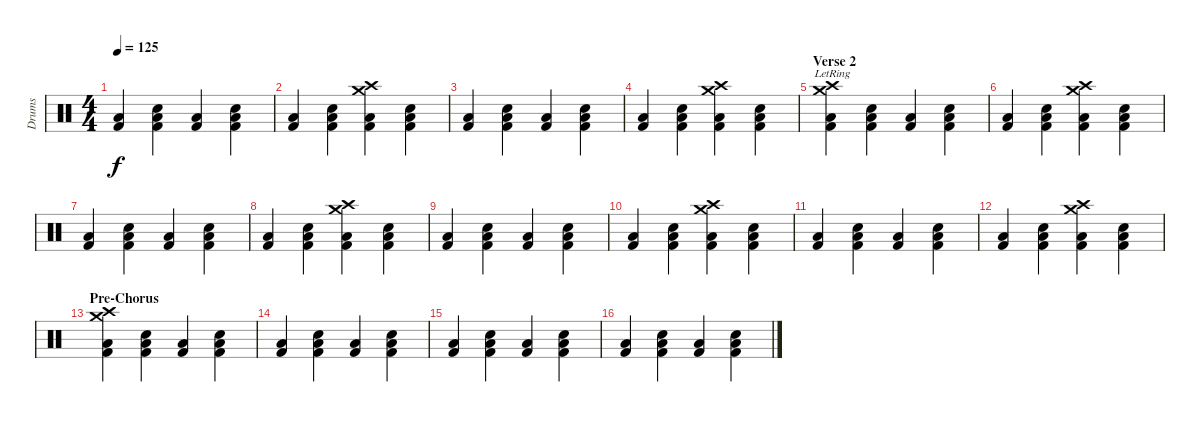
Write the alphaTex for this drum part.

\track ("Drums" "Drums") {instrument percussion}
\staff {score}
\articulation defaults
\ts (4 4)
\tempo 125
\clef neutral
\ks c
("Low Floor Tom (hit)" "Kick (hit) 2").4{dy f} ("Snare (hit) 2" "Low Floor Tom (hit)" "Kick (hit) 2").4 ("Low Floor Tom (hit)" "Kick (hit) 2").4 ("Snare (hit) 2" "Low Floor Tom (hit)" "Kick (hit) 2").4 |
("Low Floor Tom (hit)" "Kick (hit) 2").4 ("Snare (hit) 2" "Low Floor Tom (hit)" "Kick (hit) 2").4 ("Crash high (hit)" "Crash medium (hit)" "Low Floor Tom (hit)" "Kick (hit) 2").4 ("Snare (hit) 2" "Low Floor Tom (hit)" "Kick (hit) 2").4 |
("Low Floor Tom (hit)" "Kick (hit) 2").4 ("Snare (hit) 2" "Low Floor Tom (hit)" "Kick (hit) 2").4 ("Low Floor Tom (hit)" "Kick (hit) 2").4 ("Snare (hit) 2" "Low Floor Tom (hit)" "Kick (hit) 2").4 |
("Low Floor Tom (hit)" "Kick (hit) 2").4 ("Snare (hit) 2" "Low Floor Tom (hit)" "Kick (hit) 2").4 ("Crash high (hit)" "Crash medium (hit)" "Low Floor Tom (hit)" "Kick (hit) 2").4 ("Snare (hit) 2" "Low Floor Tom (hit)" "Kick (hit) 2").4 |
\section ("" "Verse 2")
("Crash high (hit)" "Crash medium (hit)"{lr} "Low Floor Tom (hit)" "Kick (hit) 2").4 ("Snare (hit) 2" "Low Floor Tom (hit)" "Kick (hit) 2").4 ("Low Floor Tom (hit)" "Kick (hit) 2").4 ("Snare (hit) 2" "Low Floor Tom (hit)" "Kick (hit) 2").4 |
("Low Floor Tom (hit)" "Kick (hit) 2").4 ("Snare (hit) 2" "Low Floor Tom (hit)" "Kick (hit) 2").4 ("Crash high (hit)" "Crash medium (hit)" "Low Floor Tom (hit)" "Kick (hit) 2").4 ("Snare (hit) 2" "Low Floor Tom (hit)" "Kick (hit) 2").4 |
("Low Floor Tom (hit)" "Kick (hit) 2").4 ("Snare (hit) 2" "Low Floor Tom (hit)" "Kick (hit) 2").4 ("Low Floor Tom (hit)" "Kick (hit) 2").4 ("Snare (hit) 2" "Low Floor Tom (hit)" "Kick (hit) 2").4 |
("Low Floor Tom (hit)" "Kick (hit) 2").4 ("Snare (hit) 2" "Low Floor Tom (hit)" "Kick (hit) 2").4 ("Crash high (hit)" "Crash medium (hit)" "Low Floor Tom (hit)" "Kick (hit) 2").4 ("Snare (hit) 2" "Low Floor Tom (hit)" "Kick (hit) 2").4 |
("Low Floor Tom (hit)" "Kick (hit) 2").4 ("Snare (hit) 2" "Low Floor Tom (hit)" "Kick (hit) 2").4 ("Low Floor Tom (hit)" "Kick (hit) 2").4 ("Snare (hit) 2" "Low Floor Tom (hit)" "Kick (hit) 2").4 |
("Low Floor Tom (hit)" "Kick (hit) 2").4 ("Snare (hit) 2" "Low Floor Tom (hit)" "Kick (hit) 2").4 ("Crash high (hit)" "Crash medium (hit)" "Low Floor Tom (hit)" "Kick (hit) 2").4 ("Snare (hit) 2" "Low Floor Tom (hit)" "Kick (hit) 2").4 |
("Low Floor Tom (hit)" "Kick (hit) 2").4 ("Snare (hit) 2" "Low Floor Tom (hit)" "Kick (hit) 2").4 ("Low Floor Tom (hit)" "Kick (hit) 2").4 ("Snare (hit) 2" "Low Floor Tom (hit)" "Kick (hit) 2").4 |
("Low Floor Tom (hit)" "Kick (hit) 2").4 ("Snare (hit) 2" "Low Floor Tom (hit)" "Kick (hit) 2").4 ("Crash high (hit)" "Crash medium (hit)" "Low Floor Tom (hit)" "Kick (hit) 2").4 ("Snare (hit) 2" "Low Floor Tom (hit)" "Kick (hit) 2").4 |
\section ("" "Pre-Chorus")
("Crash high (hit)" "Crash medium (hit)" "Low Floor Tom (hit)" "Kick (hit) 2").4 ("Snare (hit) 2" "Low Floor Tom (hit)" "Kick (hit) 2").4 ("Low Floor Tom (hit)" "Kick (hit) 2").4 ("Snare (hit) 2" "Low Floor Tom (hit)" "Kick (hit) 2").4 |
("Low Floor Tom (hit)" "Kick (hit) 2").4 ("Snare (hit) 2" "Low Floor Tom (hit)" "Kick (hit) 2").4 ("Low Floor Tom (hit)" "Kick (hit) 2").4 ("Snare (hit) 2" "Low Floor Tom (hit)" "Kick (hit) 2").4 |
("Low Floor Tom (hit)" "Kick (hit) 2").4 ("Snare (hit) 2" "Low Floor Tom (hit)" "Kick (hit) 2").4 ("Low Floor Tom (hit)" "Kick (hit) 2").4 ("Snare (hit) 2" "Low Floor Tom (hit)" "Kick (hit) 2").4 |
("Low Floor Tom (hit)" "Kick (hit) 2").4 ("Snare (hit) 2" "Low Floor Tom (hit)" "Kick (hit) 2").4 ("Low Floor Tom (hit)" "Kick (hit) 2").4 ("Snare (hit) 2" "Low Floor Tom (hit)" "Kick (hit) 2").4
